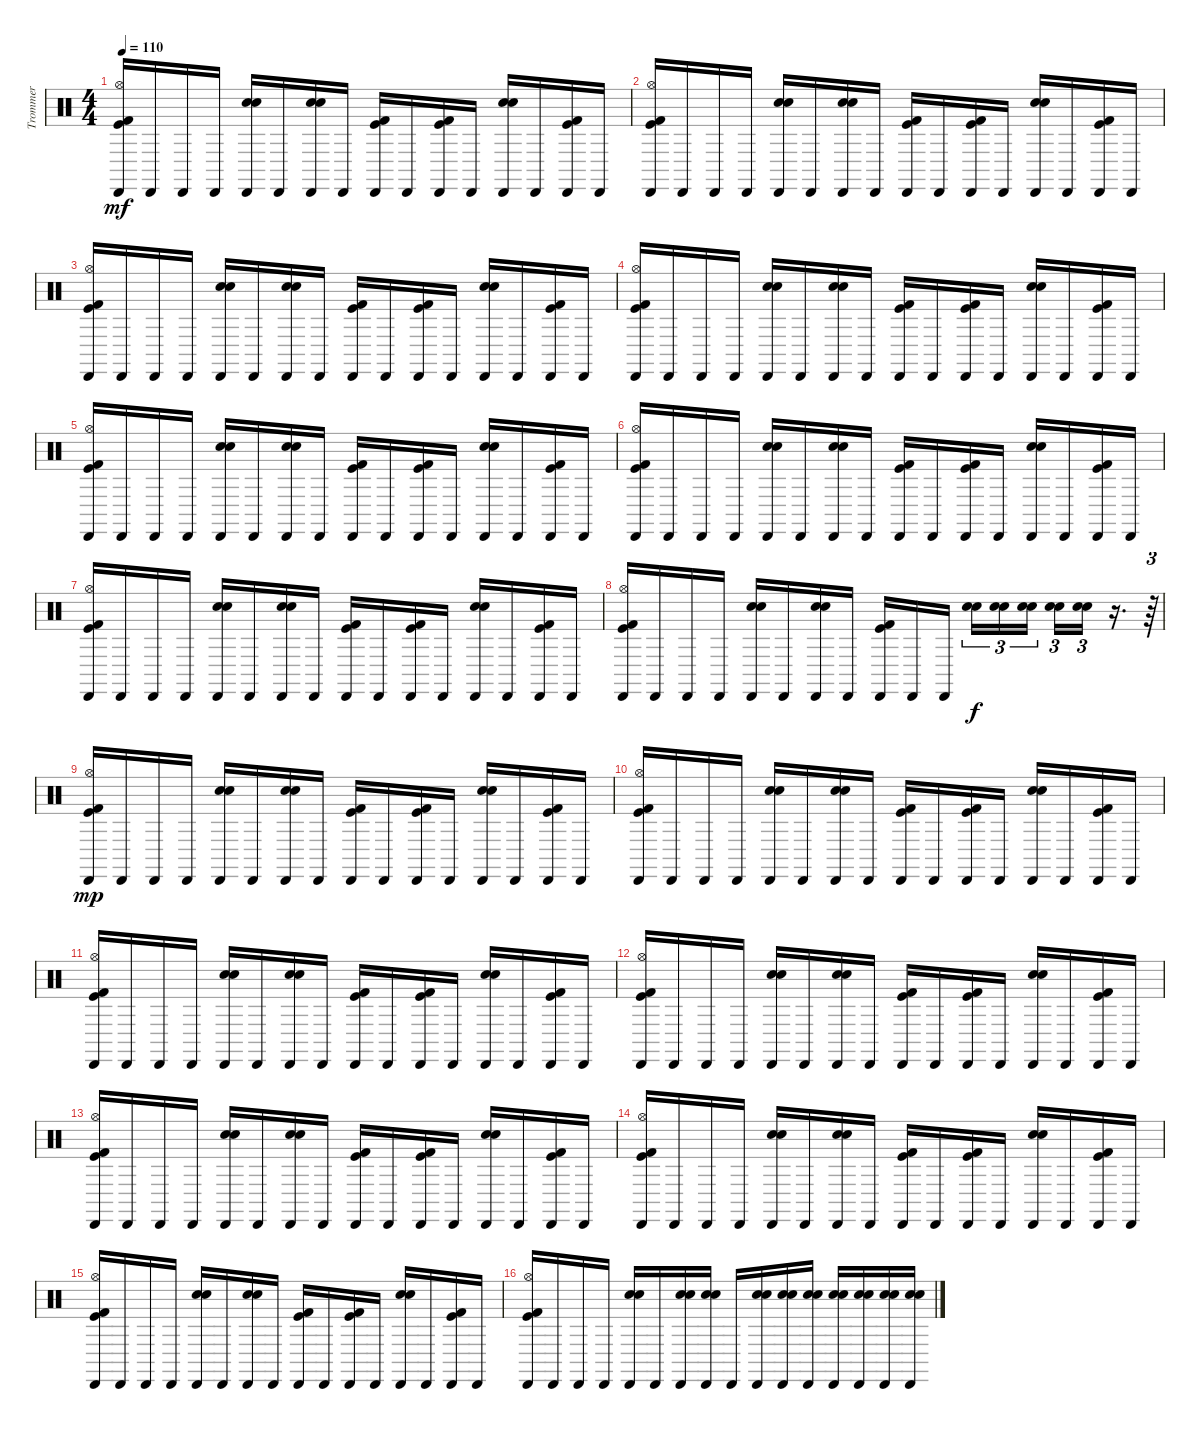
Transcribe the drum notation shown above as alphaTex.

\track ("Trommer" "Trommer") {instrument percussion}
\staff {score}
\articulation defaults
\ts (4 4)
\tempo 110
\clef neutral
\ks c
("Cabasa (hit)" "Hi-Hat (open)" "Kick (hit)" "Kick (hit) 2").16{dy mf} "Cabasa (hit)".16 "Cabasa (hit)".16 "Cabasa (hit)".16 ("Cabasa (hit)" "Snare (hit) 2" "Electric Snare (hit)").16 "Cabasa (hit)".16 ("Cabasa (hit)" "Snare (hit) 2" "Electric Snare (hit)").16 "Cabasa (hit)".16 ("Cabasa (hit)" "Kick (hit)" "Kick (hit) 2").16 "Cabasa (hit)".16 ("Cabasa (hit)" "Kick (hit) 2" "Kick (hit)").16 "Cabasa (hit)".16 ("Cabasa (hit)" "Snare (hit) 2" "Electric Snare (hit)").16 "Cabasa (hit)".16 ("Cabasa (hit)" "Kick (hit) 2" "Kick (hit)").16 "Cabasa (hit)".16 |
("Cabasa (hit)" "Hi-Hat (open)" "Kick (hit)" "Kick (hit) 2").16 "Cabasa (hit)".16 "Cabasa (hit)".16 "Cabasa (hit)".16 ("Cabasa (hit)" "Snare (hit) 2" "Electric Snare (hit)").16 "Cabasa (hit)".16 ("Cabasa (hit)" "Snare (hit) 2" "Electric Snare (hit)").16 "Cabasa (hit)".16 ("Cabasa (hit)" "Kick (hit)" "Kick (hit) 2").16 "Cabasa (hit)".16 ("Cabasa (hit)" "Kick (hit) 2" "Kick (hit)").16 "Cabasa (hit)".16 ("Cabasa (hit)" "Snare (hit) 2" "Electric Snare (hit)").16 "Cabasa (hit)".16 ("Cabasa (hit)" "Kick (hit) 2" "Kick (hit)").16 "Cabasa (hit)".16 |
("Cabasa (hit)" "Hi-Hat (open)" "Kick (hit)" "Kick (hit) 2").16 "Cabasa (hit)".16 "Cabasa (hit)".16 "Cabasa (hit)".16 ("Cabasa (hit)" "Snare (hit) 2" "Electric Snare (hit)").16 "Cabasa (hit)".16 ("Cabasa (hit)" "Snare (hit) 2" "Electric Snare (hit)").16 "Cabasa (hit)".16 ("Cabasa (hit)" "Kick (hit)" "Kick (hit) 2").16 "Cabasa (hit)".16 ("Cabasa (hit)" "Kick (hit) 2" "Kick (hit)").16 "Cabasa (hit)".16 ("Cabasa (hit)" "Snare (hit) 2" "Electric Snare (hit)").16 "Cabasa (hit)".16 ("Cabasa (hit)" "Kick (hit) 2" "Kick (hit)").16 "Cabasa (hit)".16 |
("Cabasa (hit)" "Hi-Hat (open)" "Kick (hit)" "Kick (hit) 2").16 "Cabasa (hit)".16 "Cabasa (hit)".16 "Cabasa (hit)".16 ("Cabasa (hit)" "Snare (hit) 2" "Electric Snare (hit)").16 "Cabasa (hit)".16 ("Cabasa (hit)" "Snare (hit) 2" "Electric Snare (hit)").16 "Cabasa (hit)".16 ("Cabasa (hit)" "Kick (hit)" "Kick (hit) 2").16 "Cabasa (hit)".16 ("Cabasa (hit)" "Kick (hit) 2" "Kick (hit)").16 "Cabasa (hit)".16 ("Cabasa (hit)" "Snare (hit) 2" "Electric Snare (hit)").16 "Cabasa (hit)".16 ("Cabasa (hit)" "Kick (hit) 2" "Kick (hit)").16 "Cabasa (hit)".16 |
("Cabasa (hit)" "Hi-Hat (open)" "Kick (hit)" "Kick (hit) 2").16 "Cabasa (hit)".16 "Cabasa (hit)".16 "Cabasa (hit)".16 ("Cabasa (hit)" "Snare (hit) 2" "Electric Snare (hit)").16 "Cabasa (hit)".16 ("Cabasa (hit)" "Snare (hit) 2" "Electric Snare (hit)").16 "Cabasa (hit)".16 ("Cabasa (hit)" "Kick (hit)" "Kick (hit) 2").16 "Cabasa (hit)".16 ("Cabasa (hit)" "Kick (hit) 2" "Kick (hit)").16 "Cabasa (hit)".16 ("Cabasa (hit)" "Snare (hit) 2" "Electric Snare (hit)").16 "Cabasa (hit)".16 ("Cabasa (hit)" "Kick (hit) 2" "Kick (hit)").16 "Cabasa (hit)".16 |
("Cabasa (hit)" "Hi-Hat (open)" "Kick (hit)" "Kick (hit) 2").16 "Cabasa (hit)".16 "Cabasa (hit)".16 "Cabasa (hit)".16 ("Cabasa (hit)" "Snare (hit) 2" "Electric Snare (hit)").16 "Cabasa (hit)".16 ("Cabasa (hit)" "Snare (hit) 2" "Electric Snare (hit)").16 "Cabasa (hit)".16 ("Cabasa (hit)" "Kick (hit)" "Kick (hit) 2").16 "Cabasa (hit)".16 ("Cabasa (hit)" "Kick (hit) 2" "Kick (hit)").16 "Cabasa (hit)".16 ("Cabasa (hit)" "Snare (hit) 2" "Electric Snare (hit)").16 "Cabasa (hit)".16 ("Cabasa (hit)" "Kick (hit) 2" "Kick (hit)").16 "Cabasa (hit)".16 |
("Cabasa (hit)" "Hi-Hat (open)" "Kick (hit)" "Kick (hit) 2").16 "Cabasa (hit)".16 "Cabasa (hit)".16 "Cabasa (hit)".16 ("Cabasa (hit)" "Snare (hit) 2" "Electric Snare (hit)").16 "Cabasa (hit)".16 ("Cabasa (hit)" "Snare (hit) 2" "Electric Snare (hit)").16 "Cabasa (hit)".16 ("Cabasa (hit)" "Kick (hit)" "Kick (hit) 2").16 "Cabasa (hit)".16 ("Cabasa (hit)" "Kick (hit) 2" "Kick (hit)").16 "Cabasa (hit)".16 ("Cabasa (hit)" "Snare (hit) 2" "Electric Snare (hit)").16 "Cabasa (hit)".16 ("Cabasa (hit)" "Kick (hit) 2" "Kick (hit)").16 "Cabasa (hit)".16 |
("Cabasa (hit)" "Hi-Hat (open)" "Kick (hit)" "Kick (hit) 2").16 "Cabasa (hit)".16 "Cabasa (hit)".16 "Cabasa (hit)".16 ("Cabasa (hit)" "Snare (hit) 2" "Electric Snare (hit)").16 "Cabasa (hit)".16 ("Cabasa (hit)" "Snare (hit) 2" "Electric Snare (hit)").16 "Cabasa (hit)".16 ("Cabasa (hit)" "Kick (hit)" "Kick (hit) 2").16 "Cabasa (hit)".16 "Cabasa (hit)".16 ("Electric Snare (hit)" "Snare (hit) 2").16{tu (3 2) dy f} ("Snare (hit) 2" "Electric Snare (hit)").16{tu (3 2)} ("Electric Snare (hit)" "Snare (hit) 2").16{tu (3 2)} ("Electric Snare (hit)" "Snare (hit) 2").16{tu (3 2)} ("Electric Snare (hit)" "Snare (hit) 2").16{tu (3 2)} r.16{d} r.64{tu (3 2)} |
("Cabasa (hit)" "Hi-Hat (open)" "Kick (hit)" "Kick (hit) 2").16{dy mp} "Cabasa (hit)".16 "Cabasa (hit)".16 "Cabasa (hit)".16 ("Cabasa (hit)" "Snare (hit) 2" "Electric Snare (hit)").16 "Cabasa (hit)".16 ("Cabasa (hit)" "Snare (hit) 2" "Electric Snare (hit)").16 "Cabasa (hit)".16 ("Cabasa (hit)" "Kick (hit)" "Kick (hit) 2").16 "Cabasa (hit)".16 ("Cabasa (hit)" "Kick (hit) 2" "Kick (hit)").16 "Cabasa (hit)".16 ("Cabasa (hit)" "Snare (hit) 2" "Electric Snare (hit)").16 "Cabasa (hit)".16 ("Cabasa (hit)" "Kick (hit) 2" "Kick (hit)").16 "Cabasa (hit)".16 |
("Cabasa (hit)" "Hi-Hat (open)" "Kick (hit)" "Kick (hit) 2").16 "Cabasa (hit)".16 "Cabasa (hit)".16 "Cabasa (hit)".16 ("Cabasa (hit)" "Snare (hit) 2" "Electric Snare (hit)").16 "Cabasa (hit)".16 ("Cabasa (hit)" "Snare (hit) 2" "Electric Snare (hit)").16 "Cabasa (hit)".16 ("Cabasa (hit)" "Kick (hit)" "Kick (hit) 2").16 "Cabasa (hit)".16 ("Cabasa (hit)" "Kick (hit) 2" "Kick (hit)").16 "Cabasa (hit)".16 ("Cabasa (hit)" "Snare (hit) 2" "Electric Snare (hit)").16 "Cabasa (hit)".16 ("Cabasa (hit)" "Kick (hit) 2" "Kick (hit)").16 "Cabasa (hit)".16 |
("Cabasa (hit)" "Hi-Hat (open)" "Kick (hit)" "Kick (hit) 2").16 "Cabasa (hit)".16 "Cabasa (hit)".16 "Cabasa (hit)".16 ("Cabasa (hit)" "Snare (hit) 2" "Electric Snare (hit)").16 "Cabasa (hit)".16 ("Cabasa (hit)" "Snare (hit) 2" "Electric Snare (hit)").16 "Cabasa (hit)".16 ("Cabasa (hit)" "Kick (hit)" "Kick (hit) 2").16 "Cabasa (hit)".16 ("Cabasa (hit)" "Kick (hit) 2" "Kick (hit)").16 "Cabasa (hit)".16 ("Cabasa (hit)" "Snare (hit) 2" "Electric Snare (hit)").16 "Cabasa (hit)".16 ("Cabasa (hit)" "Kick (hit) 2" "Kick (hit)").16 "Cabasa (hit)".16 |
("Cabasa (hit)" "Hi-Hat (open)" "Kick (hit)" "Kick (hit) 2").16 "Cabasa (hit)".16 "Cabasa (hit)".16 "Cabasa (hit)".16 ("Cabasa (hit)" "Snare (hit) 2" "Electric Snare (hit)").16 "Cabasa (hit)".16 ("Cabasa (hit)" "Snare (hit) 2" "Electric Snare (hit)").16 "Cabasa (hit)".16 ("Cabasa (hit)" "Kick (hit)" "Kick (hit) 2").16 "Cabasa (hit)".16 ("Cabasa (hit)" "Kick (hit) 2" "Kick (hit)").16 "Cabasa (hit)".16 ("Cabasa (hit)" "Snare (hit) 2" "Electric Snare (hit)").16 "Cabasa (hit)".16 ("Cabasa (hit)" "Kick (hit) 2" "Kick (hit)").16 "Cabasa (hit)".16 |
("Cabasa (hit)" "Hi-Hat (open)" "Kick (hit)" "Kick (hit) 2").16 "Cabasa (hit)".16 "Cabasa (hit)".16 "Cabasa (hit)".16 ("Cabasa (hit)" "Snare (hit) 2" "Electric Snare (hit)").16 "Cabasa (hit)".16 ("Cabasa (hit)" "Snare (hit) 2" "Electric Snare (hit)").16 "Cabasa (hit)".16 ("Cabasa (hit)" "Kick (hit)" "Kick (hit) 2").16 "Cabasa (hit)".16 ("Cabasa (hit)" "Kick (hit) 2" "Kick (hit)").16 "Cabasa (hit)".16 ("Cabasa (hit)" "Snare (hit) 2" "Electric Snare (hit)").16 "Cabasa (hit)".16 ("Cabasa (hit)" "Kick (hit) 2" "Kick (hit)").16 "Cabasa (hit)".16 |
("Cabasa (hit)" "Hi-Hat (open)" "Kick (hit)" "Kick (hit) 2").16 "Cabasa (hit)".16 "Cabasa (hit)".16 "Cabasa (hit)".16 ("Cabasa (hit)" "Snare (hit) 2" "Electric Snare (hit)").16 "Cabasa (hit)".16 ("Cabasa (hit)" "Snare (hit) 2" "Electric Snare (hit)").16 "Cabasa (hit)".16 ("Cabasa (hit)" "Kick (hit)" "Kick (hit) 2").16 "Cabasa (hit)".16 ("Cabasa (hit)" "Kick (hit) 2" "Kick (hit)").16 "Cabasa (hit)".16 ("Cabasa (hit)" "Snare (hit) 2" "Electric Snare (hit)").16 "Cabasa (hit)".16 ("Cabasa (hit)" "Kick (hit) 2" "Kick (hit)").16 "Cabasa (hit)".16 |
("Cabasa (hit)" "Hi-Hat (open)" "Kick (hit)" "Kick (hit) 2").16 "Cabasa (hit)".16 "Cabasa (hit)".16 "Cabasa (hit)".16 ("Cabasa (hit)" "Snare (hit) 2" "Electric Snare (hit)").16 "Cabasa (hit)".16 ("Cabasa (hit)" "Snare (hit) 2" "Electric Snare (hit)").16 "Cabasa (hit)".16 ("Cabasa (hit)" "Kick (hit)" "Kick (hit) 2").16 "Cabasa (hit)".16 ("Cabasa (hit)" "Kick (hit) 2" "Kick (hit)").16 "Cabasa (hit)".16 ("Cabasa (hit)" "Snare (hit) 2" "Electric Snare (hit)").16 "Cabasa (hit)".16 ("Cabasa (hit)" "Kick (hit) 2" "Kick (hit)").16 "Cabasa (hit)".16 |
("Cabasa (hit)" "Hi-Hat (open)" "Kick (hit)" "Kick (hit) 2").16 "Cabasa (hit)".16 "Cabasa (hit)".16 "Cabasa (hit)".16 ("Cabasa (hit)" "Snare (hit) 2" "Electric Snare (hit)").16 "Cabasa (hit)".16 ("Cabasa (hit)" "Snare (hit) 2" "Electric Snare (hit)").16 ("Cabasa (hit)" "Snare (hit) 2" "Electric Snare (hit)").16 "Cabasa (hit)".16 ("Cabasa (hit)" "Snare (hit) 2" "Electric Snare (hit)").16 ("Cabasa (hit)" "Electric Snare (hit)" "Snare (hit) 2").16 ("Cabasa (hit)" "Snare (hit) 2" "Electric Snare (hit)").16 ("Cabasa (hit)" "Snare (hit) 2" "Electric Snare (hit)").16 ("Cabasa (hit)" "Snare (hit) 2" "Electric Snare (hit)").16 ("Cabasa (hit)" "Electric Snare (hit)" "Snare (hit) 2").16 ("Cabasa (hit)" "Snare (hit) 2" "Electric Snare (hit)").16
